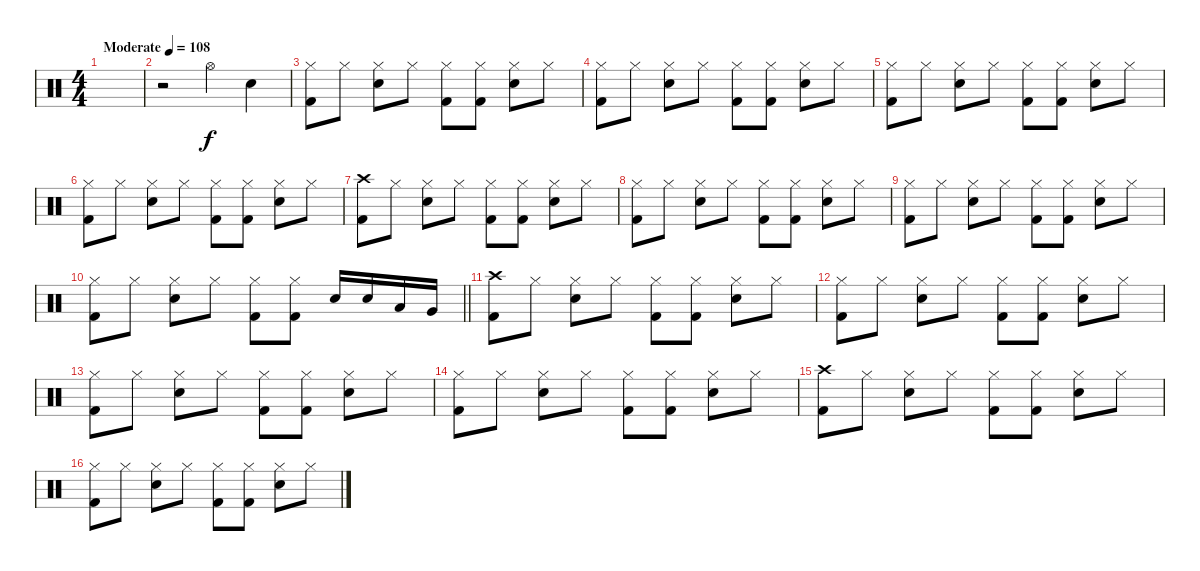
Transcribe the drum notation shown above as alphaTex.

\track "" {instrument percussion}
\staff {score}
\articulation defaults
\ts (4 4)
\tempo (108 "Moderate")
\clef neutral
\ks c
|
r.2 "Hi-Hat (open)".4 "Electric Snare (hit)".4 |
("Kick (hit) 2" "Hi-Hat (closed)").8 "Hi-Hat (closed)".8 ("Electric Snare (hit)" "Hi-Hat (closed)").8 "Hi-Hat (closed)".8 ("Kick (hit) 2" "Hi-Hat (closed)").8 ("Hi-Hat (closed)" "Kick (hit) 2").8 ("Electric Snare (hit)" "Hi-Hat (closed)").8 "Hi-Hat (closed)".8 |
("Kick (hit) 2" "Hi-Hat (closed)").8 "Hi-Hat (closed)".8 ("Electric Snare (hit)" "Hi-Hat (closed)").8 "Hi-Hat (closed)".8 ("Kick (hit) 2" "Hi-Hat (closed)").8 ("Hi-Hat (closed)" "Kick (hit) 2").8 ("Electric Snare (hit)" "Hi-Hat (closed)").8 "Hi-Hat (closed)".8 |
("Kick (hit) 2" "Hi-Hat (closed)").8 "Hi-Hat (closed)".8 ("Electric Snare (hit)" "Hi-Hat (closed)").8 "Hi-Hat (closed)".8 ("Kick (hit) 2" "Hi-Hat (closed)").8 ("Hi-Hat (closed)" "Kick (hit) 2").8 ("Electric Snare (hit)" "Hi-Hat (closed)").8 "Hi-Hat (closed)".8 |
("Kick (hit) 2" "Hi-Hat (closed)").8 "Hi-Hat (closed)".8 ("Electric Snare (hit)" "Hi-Hat (closed)").8 "Hi-Hat (closed)".8 ("Kick (hit) 2" "Hi-Hat (closed)").8 ("Hi-Hat (closed)" "Kick (hit) 2").8 ("Electric Snare (hit)" "Hi-Hat (closed)").8 "Hi-Hat (closed)".8 |
("Crash high (hit)" "Kick (hit) 2").8 "Hi-Hat (closed)".8 ("Electric Snare (hit)" "Hi-Hat (closed)").8 "Hi-Hat (closed)".8 ("Kick (hit) 2" "Hi-Hat (closed)").8 ("Hi-Hat (closed)" "Kick (hit) 2").8 ("Electric Snare (hit)" "Hi-Hat (closed)").8 "Hi-Hat (closed)".8 |
("Kick (hit) 2" "Hi-Hat (closed)").8 "Hi-Hat (closed)".8 ("Electric Snare (hit)" "Hi-Hat (closed)").8 "Hi-Hat (closed)".8 ("Kick (hit) 2" "Hi-Hat (closed)").8 ("Hi-Hat (closed)" "Kick (hit) 2").8 ("Electric Snare (hit)" "Hi-Hat (closed)").8 "Hi-Hat (closed)".8 |
("Kick (hit) 2" "Hi-Hat (closed)").8 "Hi-Hat (closed)".8 ("Electric Snare (hit)" "Hi-Hat (closed)").8 "Hi-Hat (closed)".8 ("Kick (hit) 2" "Hi-Hat (closed)").8 ("Hi-Hat (closed)" "Kick (hit) 2").8 ("Electric Snare (hit)" "Hi-Hat (closed)").8 "Hi-Hat (closed)".8 |
\barLineRight lightlight
("Kick (hit) 2" "Hi-Hat (closed)").8 "Hi-Hat (closed)".8 ("Electric Snare (hit)" "Hi-Hat (closed)").8 "Hi-Hat (closed)".8 ("Kick (hit) 2" "Hi-Hat (closed)").8 ("Hi-Hat (closed)" "Kick (hit) 2").8 "Electric Snare (hit)".16 "Electric Snare (hit)".16 "Low Tom (hit)".16 "Very Low Tom (hit)".16 |
\section ("" "")
("Crash high (hit)" "Kick (hit) 2").8 "Hi-Hat (closed)".8 ("Electric Snare (hit)" "Hi-Hat (closed)").8 "Hi-Hat (closed)".8 ("Kick (hit) 2" "Hi-Hat (closed)").8 ("Hi-Hat (closed)" "Kick (hit) 2").8 ("Electric Snare (hit)" "Hi-Hat (closed)").8 "Hi-Hat (closed)".8 |
("Kick (hit) 2" "Hi-Hat (closed)").8 "Hi-Hat (closed)".8 ("Electric Snare (hit)" "Hi-Hat (closed)").8 "Hi-Hat (closed)".8 ("Kick (hit) 2" "Hi-Hat (closed)").8 ("Hi-Hat (closed)" "Kick (hit) 2").8 ("Electric Snare (hit)" "Hi-Hat (closed)").8 "Hi-Hat (closed)".8 |
("Kick (hit) 2" "Hi-Hat (closed)").8 "Hi-Hat (closed)".8 ("Electric Snare (hit)" "Hi-Hat (closed)").8 "Hi-Hat (closed)".8 ("Kick (hit) 2" "Hi-Hat (closed)").8 ("Hi-Hat (closed)" "Kick (hit) 2").8 ("Electric Snare (hit)" "Hi-Hat (closed)").8 "Hi-Hat (closed)".8 |
("Kick (hit) 2" "Hi-Hat (closed)").8 "Hi-Hat (closed)".8 ("Electric Snare (hit)" "Hi-Hat (closed)").8 "Hi-Hat (closed)".8 ("Kick (hit) 2" "Hi-Hat (closed)").8 ("Hi-Hat (closed)" "Kick (hit) 2").8 ("Electric Snare (hit)" "Hi-Hat (closed)").8 "Hi-Hat (closed)".8 |
("Crash high (hit)" "Kick (hit) 2").8 "Hi-Hat (closed)".8 ("Electric Snare (hit)" "Hi-Hat (closed)").8 "Hi-Hat (closed)".8 ("Kick (hit) 2" "Hi-Hat (closed)").8 ("Hi-Hat (closed)" "Kick (hit) 2").8 ("Electric Snare (hit)" "Hi-Hat (closed)").8 "Hi-Hat (closed)".8 |
("Kick (hit) 2" "Hi-Hat (closed)").8 "Hi-Hat (closed)".8 ("Electric Snare (hit)" "Hi-Hat (closed)").8 "Hi-Hat (closed)".8 ("Kick (hit) 2" "Hi-Hat (closed)").8 ("Hi-Hat (closed)" "Kick (hit) 2").8 ("Electric Snare (hit)" "Hi-Hat (closed)").8 "Hi-Hat (closed)".8
